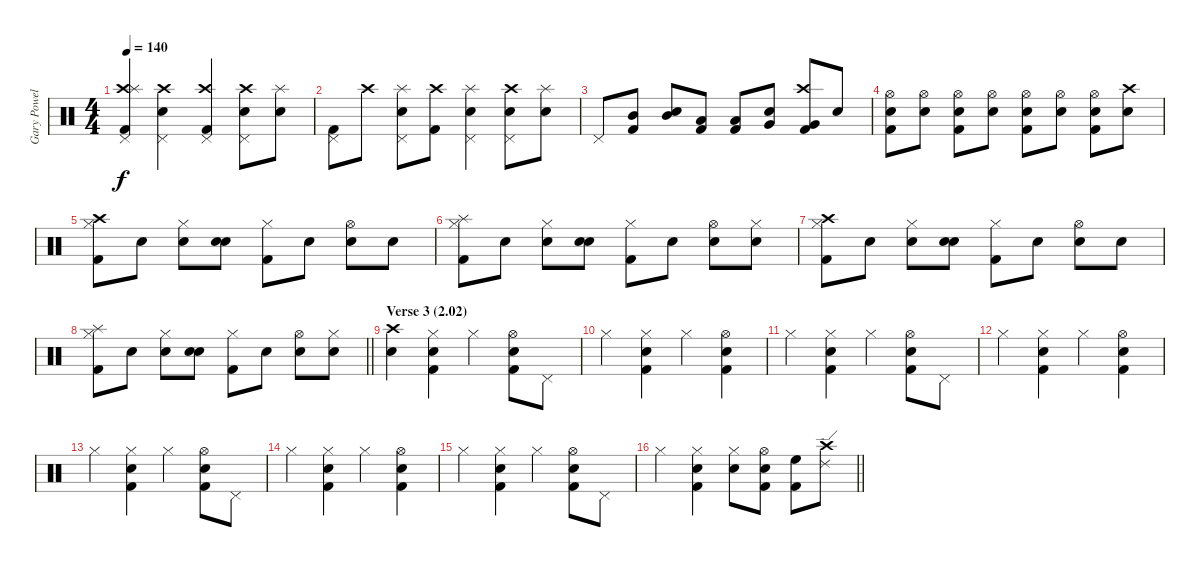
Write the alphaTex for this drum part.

\track ("Gary Powell (Drums)" "Gary Powel") {instrument percussion}
\staff {score}
\articulation defaults
\ts (4 4)
\tempo 140
\clef neutral
\ks c
("Kick (hit) 2" "Crash high (hit)" "Splash (hit)" "Pedal Hi-Hat (hit)").4{dy f} ("Crash high (hit)" "Snare (hit) 2" "Pedal Hi-Hat (hit)").4 ("Kick (hit) 2" "Crash high (hit)" "Pedal Hi-Hat (hit)").4 ("Crash high (hit)" "Snare (hit) 2" "Pedal Hi-Hat (hit)").8 ("Splash (hit)" "Snare (hit) 2").8 |
("Kick (hit) 2" "Pedal Hi-Hat (hit)").8 "Crash high (hit)".8 ("Splash (hit)" "Snare (hit) 2" "Pedal Hi-Hat (hit)").8 ("Kick (hit) 2" "Crash high (hit)").8 ("Splash (hit)" "Snare (hit) 2" "Pedal Hi-Hat (hit)").4 ("Crash high (hit)" "Snare (hit) 2" "Pedal Hi-Hat (hit)").8 ("Splash (hit)" "Snare (hit) 2").8 |
"Pedal Hi-Hat (hit)".8 ("Kick (hit) 2" "Mid Tom (hit)").8 ("Mid Tom (hit)" "Snare (hit) 2").8 ("Kick (hit) 2" "Low Tom (hit)").8 ("Kick (hit) 2" "Low Tom (hit)").8 ("Very Low Tom (hit)" "Snare (hit) 2").8 ("Kick (hit) 2" "Crash high (hit)" "Very Low Tom (hit)").8 "Snare (hit) 2".8 |
("Kick (hit) 2" "Hi-Hat (open)" "Snare (hit) 2").8 ("Hi-Hat (open)" "Snare (hit) 2").8 ("Kick (hit) 2" "Hi-Hat (open)" "Snare (hit) 2").8 ("Hi-Hat (open)" "Snare (hit) 2").8 ("Kick (hit) 2" "Hi-Hat (open)" "Snare (hit) 2").8 ("Hi-Hat (open)" "Snare (hit) 2").8 ("Kick (hit) 2" "Hi-Hat (open)" "Snare (hit) 2").8 ("Crash high (hit)" "Snare (hit) 2").8 |
("Kick (hit) 2" "Crash high (hit)" "Hi-Hat (closed)").8 "Snare (hit)".8 ("Snare (hit) 2" "Hi-Hat (closed)").8 ("Snare (hit)" "Snare (hit) 2").8 ("Kick (hit) 2" "Hi-Hat (closed)").8 "Snare (hit)".8 ("Snare (hit) 2" "Hi-Hat (open)").8 "Snare (hit)".8 |
("Kick (hit) 2" "Splash (hit)" "Hi-Hat (closed)").8 "Snare (hit)".8 ("Snare (hit) 2" "Hi-Hat (closed)").8 ("Snare (hit)" "Snare (hit) 2").8 ("Kick (hit) 2" "Hi-Hat (closed)").8 "Snare (hit)".8 ("Snare (hit) 2" "Hi-Hat (open)").8 ("Snare (hit)" "Hi-Hat (closed)").8 |
("Kick (hit) 2" "Crash high (hit)" "Hi-Hat (closed)").8 "Snare (hit)".8 ("Snare (hit) 2" "Hi-Hat (closed)").8 ("Snare (hit)" "Snare (hit) 2").8 ("Kick (hit) 2" "Hi-Hat (closed)").8 "Snare (hit)".8 ("Snare (hit) 2" "Hi-Hat (open)").8 "Snare (hit)".8 |
\barLineRight lightlight
("Kick (hit) 2" "Splash (hit)" "Hi-Hat (closed)").8 "Snare (hit)".8 ("Snare (hit) 2" "Hi-Hat (closed)").8 ("Snare (hit)" "Snare (hit) 2").8 ("Kick (hit) 2" "Hi-Hat (closed)").8 "Snare (hit)".8 ("Snare (hit) 2" "Hi-Hat (open)").8 ("Snare (hit)" "Hi-Hat (closed)").8 |
\section ("" "Verse 3 (2.02)")
("Crash high (hit)" "Hand Clap (hit)").4 ("Kick (hit) 2" "Hi-Hat (closed)" "Snare (hit) 2").4 "Hi-Hat (closed)".4 ("Kick (hit) 2" "Hi-Hat (open)" "Snare (hit) 2").8 "Pedal Hi-Hat (hit)".8 |
"Hi-Hat (closed)".4 ("Kick (hit) 2" "Hi-Hat (closed)" "Snare (hit) 2").4 "Hi-Hat (closed)".4 ("Kick (hit) 2" "Hi-Hat (open)" "Snare (hit) 2").4 |
"Hi-Hat (closed)".4 ("Kick (hit) 2" "Hi-Hat (closed)" "Snare (hit) 2").4 "Hi-Hat (closed)".4 ("Kick (hit) 2" "Hi-Hat (open)" "Snare (hit) 2").8 "Pedal Hi-Hat (hit)".8 |
"Hi-Hat (closed)".4 ("Kick (hit) 2" "Hi-Hat (closed)" "Snare (hit) 2").4 "Hi-Hat (closed)".4 ("Kick (hit) 2" "Hi-Hat (open)" "Snare (hit) 2").4 |
"Hi-Hat (closed)".4 ("Kick (hit) 2" "Hi-Hat (closed)" "Snare (hit) 2").4 "Hi-Hat (closed)".4 ("Kick (hit) 2" "Hi-Hat (open)" "Snare (hit) 2").8 "Pedal Hi-Hat (hit)".8 |
"Hi-Hat (closed)".4 ("Kick (hit) 2" "Hi-Hat (closed)" "Snare (hit) 2").4 "Hi-Hat (closed)".4 ("Kick (hit) 2" "Hi-Hat (open)" "Snare (hit) 2").4 |
"Hi-Hat (closed)".4 ("Kick (hit) 2" "Hi-Hat (closed)" "Snare (hit) 2").4 "Hi-Hat (closed)".4 ("Kick (hit) 2" "Hi-Hat (open)" "Snare (hit) 2").8 "Pedal Hi-Hat (hit)".8 |
\barLineRight lightlight "Hi-Hat (closed)".4
("Kick (hit) 2" "Hi-Hat (closed)" "Snare (hit) 2").4 ("Hi-Hat (closed)" "Snare (hit) 2").8 ("Kick (hit) 2" "Hi-Hat (open)" "Snare (hit) 2").8 ("Kick (hit) 2" "High Floor Tom (hit)").8 ("Ride (edge) 2" "Crash high (hit)").8
